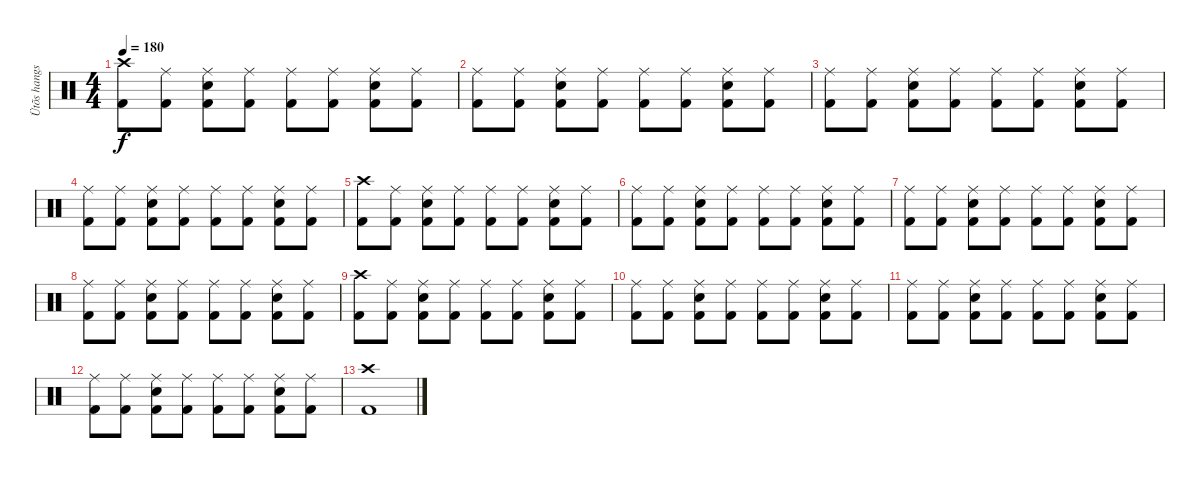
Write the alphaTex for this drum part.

\track ("Ütõs hangszer" "Ütõs hangs") {instrument percussion}
\staff {score}
\articulation defaults
\ts (4 4)
\tempo 180
\clef neutral
\ks c
("Crash high (hit)" "Kick (hit) 2").8{dy f} ("Ride (middle)" "Kick (hit) 2").8 ("Ride (middle)" "Electric Snare (hit)" "Kick (hit) 2").8 ("Ride (middle)" "Kick (hit) 2").8 ("Ride (middle)" "Kick (hit) 2").8 ("Ride (middle)" "Kick (hit) 2").8 ("Ride (middle)" "Electric Snare (hit)" "Kick (hit) 2").8 ("Ride (middle)" "Kick (hit) 2").8 |
("Ride (middle)" "Kick (hit) 2").8 ("Ride (middle)" "Kick (hit) 2").8 ("Ride (middle)" "Electric Snare (hit)" "Kick (hit) 2").8 ("Ride (middle)" "Kick (hit) 2").8 ("Ride (middle)" "Kick (hit) 2").8 ("Ride (middle)" "Kick (hit) 2").8 ("Ride (middle)" "Electric Snare (hit)" "Kick (hit) 2").8 ("Ride (middle)" "Kick (hit) 2").8 |
("Ride (middle)" "Kick (hit) 2").8 ("Ride (middle)" "Kick (hit) 2").8 ("Ride (middle)" "Electric Snare (hit)" "Kick (hit) 2").8 ("Ride (middle)" "Kick (hit) 2").8 ("Ride (middle)" "Kick (hit) 2").8 ("Ride (middle)" "Kick (hit) 2").8 ("Ride (middle)" "Electric Snare (hit)" "Kick (hit) 2").8 ("Ride (middle)" "Kick (hit) 2").8 |
("Ride (middle)" "Kick (hit) 2").8 ("Ride (middle)" "Kick (hit) 2").8 ("Ride (middle)" "Electric Snare (hit)" "Kick (hit) 2").8 ("Ride (middle)" "Kick (hit) 2").8 ("Ride (middle)" "Kick (hit) 2").8 ("Ride (middle)" "Kick (hit) 2").8 ("Ride (middle)" "Electric Snare (hit)" "Kick (hit) 2").8 ("Ride (middle)" "Kick (hit) 2").8 |
("Crash high (hit)" "Kick (hit) 2").8 ("Ride (middle)" "Kick (hit) 2").8 ("Ride (middle)" "Electric Snare (hit)" "Kick (hit) 2").8 ("Ride (middle)" "Kick (hit) 2").8 ("Ride (middle)" "Kick (hit) 2").8 ("Ride (middle)" "Kick (hit) 2").8 ("Ride (middle)" "Electric Snare (hit)" "Kick (hit) 2").8 ("Ride (middle)" "Kick (hit) 2").8 |
("Ride (middle)" "Kick (hit) 2").8 ("Ride (middle)" "Kick (hit) 2").8 ("Ride (middle)" "Electric Snare (hit)" "Kick (hit) 2").8 ("Ride (middle)" "Kick (hit) 2").8 ("Ride (middle)" "Kick (hit) 2").8 ("Ride (middle)" "Kick (hit) 2").8 ("Ride (middle)" "Electric Snare (hit)" "Kick (hit) 2").8 ("Ride (middle)" "Kick (hit) 2").8 |
("Ride (middle)" "Kick (hit) 2").8 ("Ride (middle)" "Kick (hit) 2").8 ("Ride (middle)" "Electric Snare (hit)" "Kick (hit) 2").8 ("Ride (middle)" "Kick (hit) 2").8 ("Ride (middle)" "Kick (hit) 2").8 ("Ride (middle)" "Kick (hit) 2").8 ("Ride (middle)" "Electric Snare (hit)" "Kick (hit) 2").8 ("Ride (middle)" "Kick (hit) 2").8 |
("Ride (middle)" "Kick (hit) 2").8 ("Ride (middle)" "Kick (hit) 2").8 ("Ride (middle)" "Electric Snare (hit)" "Kick (hit) 2").8 ("Ride (middle)" "Kick (hit) 2").8 ("Ride (middle)" "Kick (hit) 2").8 ("Ride (middle)" "Kick (hit) 2").8 ("Ride (middle)" "Electric Snare (hit)" "Kick (hit) 2").8 ("Ride (middle)" "Kick (hit) 2").8 |
("Crash high (hit)" "Kick (hit) 2").8 ("Ride (middle)" "Kick (hit) 2").8 ("Ride (middle)" "Electric Snare (hit)" "Kick (hit) 2").8 ("Ride (middle)" "Kick (hit) 2").8 ("Ride (middle)" "Kick (hit) 2").8 ("Ride (middle)" "Kick (hit) 2").8 ("Ride (middle)" "Electric Snare (hit)" "Kick (hit) 2").8 ("Ride (middle)" "Kick (hit) 2").8 |
("Ride (middle)" "Kick (hit) 2").8 ("Ride (middle)" "Kick (hit) 2").8 ("Ride (middle)" "Electric Snare (hit)" "Kick (hit) 2").8 ("Ride (middle)" "Kick (hit) 2").8 ("Ride (middle)" "Kick (hit) 2").8 ("Ride (middle)" "Kick (hit) 2").8 ("Ride (middle)" "Electric Snare (hit)" "Kick (hit) 2").8 ("Ride (middle)" "Kick (hit) 2").8 |
("Ride (middle)" "Kick (hit) 2").8 ("Ride (middle)" "Kick (hit) 2").8 ("Ride (middle)" "Electric Snare (hit)" "Kick (hit) 2").8 ("Ride (middle)" "Kick (hit) 2").8 ("Ride (middle)" "Kick (hit) 2").8 ("Ride (middle)" "Kick (hit) 2").8 ("Ride (middle)" "Electric Snare (hit)" "Kick (hit) 2").8 ("Ride (middle)" "Kick (hit) 2").8 |
("Ride (middle)" "Kick (hit) 2").8 ("Ride (middle)" "Kick (hit) 2").8 ("Ride (middle)" "Electric Snare (hit)" "Kick (hit) 2").8 ("Ride (middle)" "Kick (hit) 2").8 ("Ride (middle)" "Kick (hit) 2").8 ("Ride (middle)" "Kick (hit) 2").8 ("Ride (middle)" "Electric Snare (hit)" "Kick (hit) 2").8 ("Ride (middle)" "Kick (hit) 2").8 |
("Crash high (hit)" "Kick (hit) 2").1
